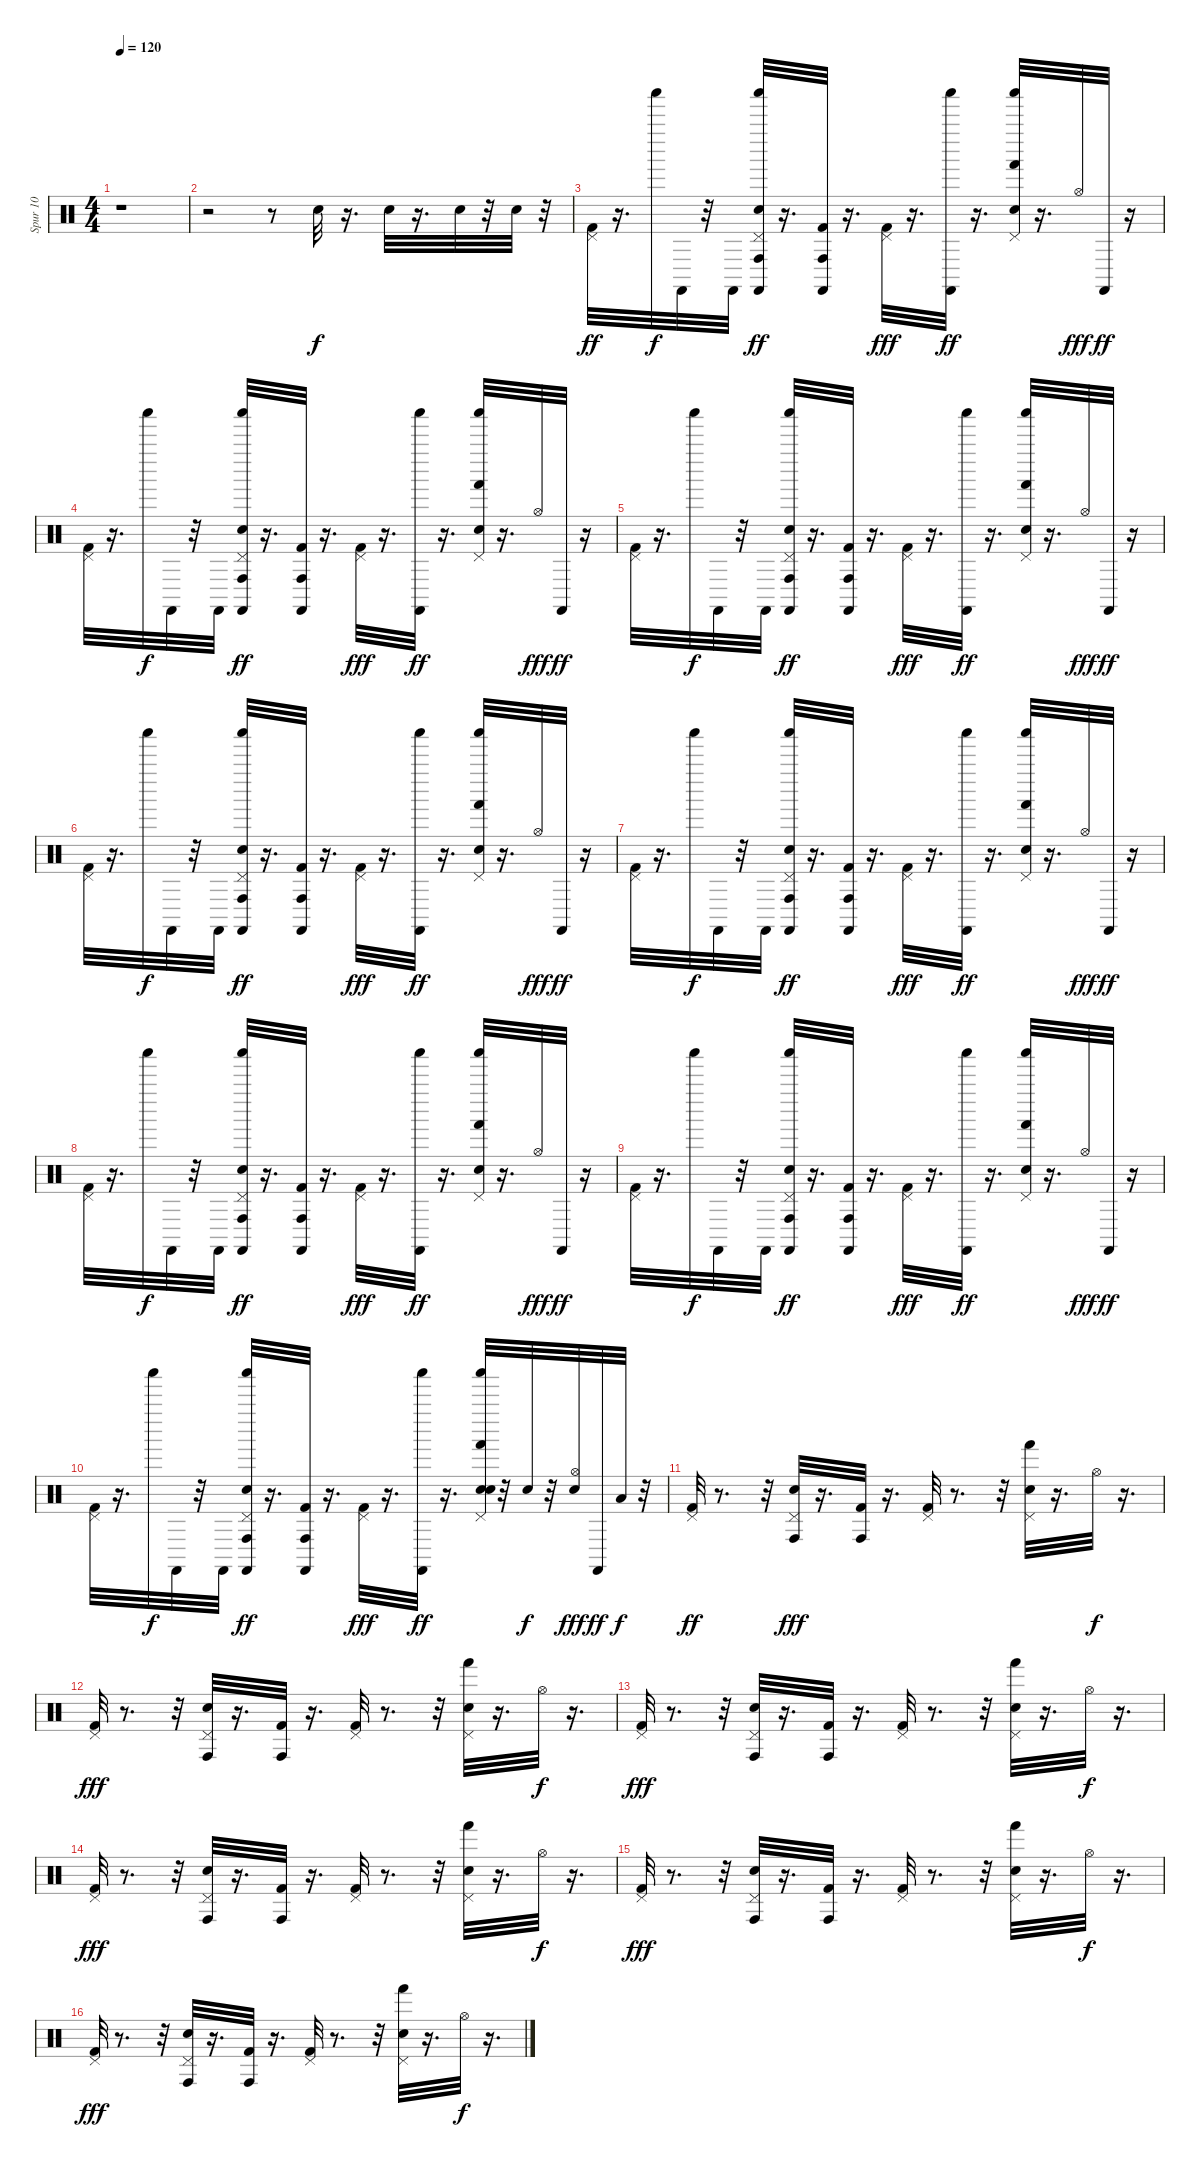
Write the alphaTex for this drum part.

\track ("Spur 10" "Spur 10") {instrument percussion}
\staff {score}
\articulation defaults
\ts (4 4)
\tempo 120
\clef neutral
\ks c
r.1{dy f} |
r.2 r.8 "Electric Snare (hit)".32 r.16{d} "Electric Snare (hit)".32 r.16{d} "Snare (hit) 2".32 r.32 "Snare (hit) 2".32 r.32 |
("Kick (hit) 2" "Pedal Hi-Hat (hit)").32{dy ff} r.16{d} "Shaker (hit)".32{dy f} "Castanets (hit)".32 r.32 "Castanets (hit)".32 ("Snare (hit) 2" "Conga high (hit)" "Pedal Hi-Hat (hit)" "Shaker (hit)" "Castanets (hit)").32{dy ff} r.16{d} ("Kick (hit) 2" "Conga high (hit)" "Castanets (hit)").32 r.16{d} ("Kick (hit) 2" "Pedal Hi-Hat (hit)").32{dy fff} r.16{d} ("Shaker (hit)" "Castanets (hit)").32{dy ff} r.16{d} ("Snare (hit) 2" "Hand (hit)" "Pedal Hi-Hat (hit)" "Shaker (hit)").32 r.16{d} "Hi-Hat (open)".32{dy fff} "Castanets (hit)".32{dy ff} r.16 |
("Kick (hit) 2" "Pedal Hi-Hat (hit)").32 r.16{d} "Shaker (hit)".32{dy f} "Castanets (hit)".32 r.32 "Castanets (hit)".32 ("Snare (hit) 2" "Conga high (hit)" "Pedal Hi-Hat (hit)" "Shaker (hit)" "Castanets (hit)").32{dy ff} r.16{d} ("Kick (hit) 2" "Conga high (hit)" "Castanets (hit)").32 r.16{d} ("Kick (hit) 2" "Pedal Hi-Hat (hit)").32{dy fff} r.16{d} ("Shaker (hit)" "Castanets (hit)").32{dy ff} r.16{d} ("Snare (hit) 2" "Hand (hit)" "Pedal Hi-Hat (hit)" "Shaker (hit)").32 r.16{d} "Hi-Hat (open)".32{dy fff} "Castanets (hit)".32{dy ff} r.16 |
("Kick (hit) 2" "Pedal Hi-Hat (hit)").32 r.16{d} "Shaker (hit)".32{dy f} "Castanets (hit)".32 r.32 "Castanets (hit)".32 ("Snare (hit) 2" "Conga high (hit)" "Pedal Hi-Hat (hit)" "Shaker (hit)" "Castanets (hit)").32{dy ff} r.16{d} ("Kick (hit) 2" "Conga high (hit)" "Castanets (hit)").32 r.16{d} ("Kick (hit) 2" "Pedal Hi-Hat (hit)").32{dy fff} r.16{d} ("Shaker (hit)" "Castanets (hit)").32{dy ff} r.16{d} ("Snare (hit) 2" "Hand (hit)" "Pedal Hi-Hat (hit)" "Shaker (hit)").32 r.16{d} "Hi-Hat (open)".32{dy fff} "Castanets (hit)".32{dy ff} r.16 |
("Kick (hit) 2" "Pedal Hi-Hat (hit)").32 r.16{d} "Shaker (hit)".32{dy f} "Castanets (hit)".32 r.32 "Castanets (hit)".32 ("Snare (hit) 2" "Conga high (hit)" "Pedal Hi-Hat (hit)" "Shaker (hit)" "Castanets (hit)").32{dy ff} r.16{d} ("Kick (hit) 2" "Conga high (hit)" "Castanets (hit)").32 r.16{d} ("Kick (hit) 2" "Pedal Hi-Hat (hit)").32{dy fff} r.16{d} ("Shaker (hit)" "Castanets (hit)").32{dy ff} r.16{d} ("Snare (hit) 2" "Hand (hit)" "Pedal Hi-Hat (hit)" "Shaker (hit)").32 r.16{d} "Hi-Hat (open)".32{dy fff} "Castanets (hit)".32{dy ff} r.16 |
("Kick (hit) 2" "Pedal Hi-Hat (hit)").32 r.16{d} "Shaker (hit)".32{dy f} "Castanets (hit)".32 r.32 "Castanets (hit)".32 ("Snare (hit) 2" "Conga high (hit)" "Pedal Hi-Hat (hit)" "Shaker (hit)" "Castanets (hit)").32{dy ff} r.16{d} ("Kick (hit) 2" "Conga high (hit)" "Castanets (hit)").32 r.16{d} ("Kick (hit) 2" "Pedal Hi-Hat (hit)").32{dy fff} r.16{d} ("Shaker (hit)" "Castanets (hit)").32{dy ff} r.16{d} ("Snare (hit) 2" "Hand (hit)" "Pedal Hi-Hat (hit)" "Shaker (hit)").32 r.16{d} "Hi-Hat (open)".32{dy fff} "Castanets (hit)".32{dy ff} r.16 |
("Kick (hit) 2" "Pedal Hi-Hat (hit)").32 r.16{d} "Shaker (hit)".32{dy f} "Castanets (hit)".32 r.32 "Castanets (hit)".32 ("Snare (hit) 2" "Conga high (hit)" "Pedal Hi-Hat (hit)" "Shaker (hit)" "Castanets (hit)").32{dy ff} r.16{d} ("Kick (hit) 2" "Conga high (hit)" "Castanets (hit)").32 r.16{d} ("Kick (hit) 2" "Pedal Hi-Hat (hit)").32{dy fff} r.16{d} ("Shaker (hit)" "Castanets (hit)").32{dy ff} r.16{d} ("Snare (hit) 2" "Hand (hit)" "Pedal Hi-Hat (hit)" "Shaker (hit)").32 r.16{d} "Hi-Hat (open)".32{dy fff} "Castanets (hit)".32{dy ff} r.16 |
("Kick (hit) 2" "Pedal Hi-Hat (hit)").32 r.16{d} "Shaker (hit)".32{dy f} "Castanets (hit)".32 r.32 "Castanets (hit)".32 ("Snare (hit) 2" "Conga high (hit)" "Pedal Hi-Hat (hit)" "Shaker (hit)" "Castanets (hit)").32{dy ff} r.16{d} ("Kick (hit) 2" "Conga high (hit)" "Castanets (hit)").32 r.16{d} ("Kick (hit) 2" "Pedal Hi-Hat (hit)").32{dy fff} r.16{d} ("Shaker (hit)" "Castanets (hit)").32{dy ff} r.16{d} ("Snare (hit) 2" "Hand (hit)" "Pedal Hi-Hat (hit)" "Shaker (hit)").32 r.16{d} "Hi-Hat (open)".32{dy fff} "Castanets (hit)".32{dy ff} r.16 |
("Kick (hit) 2" "Pedal Hi-Hat (hit)").32 r.16{d} "Shaker (hit)".32{dy f} "Castanets (hit)".32 r.32 "Castanets (hit)".32 ("Snare (hit) 2" "Conga high (hit)" "Pedal Hi-Hat (hit)" "Shaker (hit)" "Castanets (hit)").32{dy ff} r.16{d} ("Kick (hit) 2" "Conga high (hit)" "Castanets (hit)").32 r.16{d} ("Kick (hit) 2" "Pedal Hi-Hat (hit)").32{dy fff} r.16{d} ("Shaker (hit)" "Castanets (hit)").32{dy ff} r.16{d} ("Electric Snare (hit)" "Snare (hit) 2" "Hand (hit)" "Pedal Hi-Hat (hit)" "Shaker (hit)").32 r.32 "Electric Snare (hit)".32{dy f} r.32 ("Snare (hit) 2" "Hi-Hat (open)").32{dy fff} "Castanets (hit)".32{dy ff} "Low Tom (hit)".32{dy f} r.32 |
("Kick (hit) 2" "Pedal Hi-Hat (hit)").32{dy ff} r.8{d} r.32 ("Snare (hit) 2" "Conga high (hit)" "Pedal Hi-Hat (hit)").32{dy fff} r.16{d} ("Kick (hit) 2" "Conga high (hit)").32 r.16{d} ("Kick (hit) 2" "Pedal Hi-Hat (hit)").32 r.8{d} r.32 ("Snare (hit) 2" "Hand (hit)" "Pedal Hi-Hat (hit)").32 r.16{d} "Hi-Hat (open)".32{dy f} r.16{d} |
("Kick (hit) 2" "Pedal Hi-Hat (hit)").32{dy fff} r.8{d} r.32 ("Snare (hit) 2" "Conga high (hit)" "Pedal Hi-Hat (hit)").32 r.16{d} ("Kick (hit) 2" "Conga high (hit)").32 r.16{d} ("Kick (hit) 2" "Pedal Hi-Hat (hit)").32 r.8{d} r.32 ("Snare (hit) 2" "Hand (hit)" "Pedal Hi-Hat (hit)").32 r.16{d} "Hi-Hat (open)".32{dy f} r.16{d} |
("Kick (hit) 2" "Pedal Hi-Hat (hit)").32{dy fff} r.8{d} r.32 ("Snare (hit) 2" "Conga high (hit)" "Pedal Hi-Hat (hit)").32 r.16{d} ("Kick (hit) 2" "Conga high (hit)").32 r.16{d} ("Kick (hit) 2" "Pedal Hi-Hat (hit)").32 r.8{d} r.32 ("Snare (hit) 2" "Hand (hit)" "Pedal Hi-Hat (hit)").32 r.16{d} "Hi-Hat (open)".32{dy f} r.16{d} |
("Kick (hit) 2" "Pedal Hi-Hat (hit)").32{dy fff} r.8{d} r.32 ("Snare (hit) 2" "Conga high (hit)" "Pedal Hi-Hat (hit)").32 r.16{d} ("Kick (hit) 2" "Conga high (hit)").32 r.16{d} ("Kick (hit) 2" "Pedal Hi-Hat (hit)").32 r.8{d} r.32 ("Snare (hit) 2" "Hand (hit)" "Pedal Hi-Hat (hit)").32 r.16{d} "Hi-Hat (open)".32{dy f} r.16{d} |
("Kick (hit) 2" "Pedal Hi-Hat (hit)").32{dy fff} r.8{d} r.32 ("Snare (hit) 2" "Conga high (hit)" "Pedal Hi-Hat (hit)").32 r.16{d} ("Kick (hit) 2" "Conga high (hit)").32 r.16{d} ("Kick (hit) 2" "Pedal Hi-Hat (hit)").32 r.8{d} r.32 ("Snare (hit) 2" "Hand (hit)" "Pedal Hi-Hat (hit)").32 r.16{d} "Hi-Hat (open)".32{dy f} r.16{d} |
("Kick (hit) 2" "Pedal Hi-Hat (hit)").32{dy fff} r.8{d} r.32 ("Conga high (hit)" "Pedal Hi-Hat (hit)" "Snare (hit) 2").32 r.16{d} ("Conga high (hit)" "Kick (hit) 2").32 r.16{d} ("Kick (hit) 2" "Pedal Hi-Hat (hit)").32 r.8{d} r.32 ("Hand (hit)" "Pedal Hi-Hat (hit)" "Snare (hit) 2").32 r.16{d} "Hi-Hat (open)".32{dy f} r.16{d}
